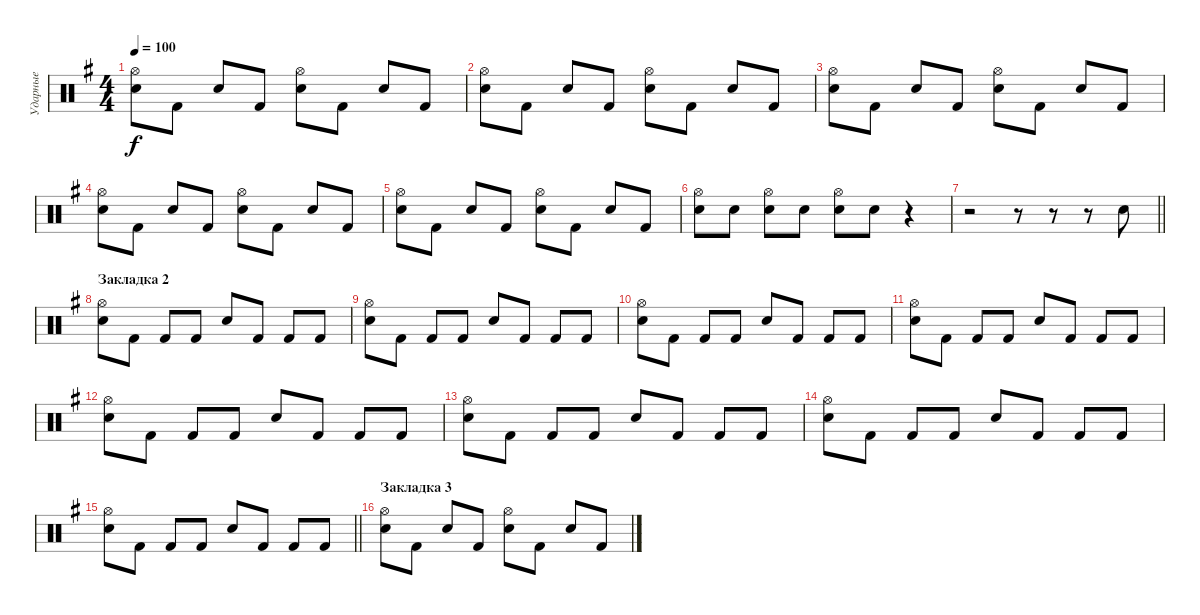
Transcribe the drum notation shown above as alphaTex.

\track ("Ударные" "Ударные") {instrument percussion}
\staff {score}
\articulation defaults
\ts (4 4)
\tempo 100
\clef neutral
\ks g
("Hi-Hat (open)" "Snare (hit) 2").8{dy f} "Kick (hit) 2".8 "Electric Snare (hit)".8 "Kick (hit) 2".8 ("Hi-Hat (open)" "Snare (hit) 2").8 "Kick (hit) 2".8 "Electric Snare (hit)".8 "Kick (hit) 2".8 |
("Hi-Hat (open)" "Snare (hit) 2").8 "Kick (hit) 2".8 "Electric Snare (hit)".8 "Kick (hit) 2".8 ("Hi-Hat (open)" "Snare (hit) 2").8 "Kick (hit) 2".8 "Electric Snare (hit)".8 "Kick (hit) 2".8 |
("Hi-Hat (open)" "Snare (hit) 2").8 "Kick (hit) 2".8 "Electric Snare (hit)".8 "Kick (hit) 2".8 ("Hi-Hat (open)" "Snare (hit) 2").8 "Kick (hit) 2".8 "Electric Snare (hit)".8 "Kick (hit) 2".8 |
("Hi-Hat (open)" "Snare (hit) 2").8 "Kick (hit) 2".8 "Electric Snare (hit)".8 "Kick (hit) 2".8 ("Hi-Hat (open)" "Snare (hit) 2").8 "Kick (hit) 2".8 "Electric Snare (hit)".8 "Kick (hit) 2".8 |
("Hi-Hat (open)" "Snare (hit) 2").8 "Kick (hit) 2".8 "Electric Snare (hit)".8 "Kick (hit) 2".8 ("Hi-Hat (open)" "Snare (hit) 2").8 "Kick (hit) 2".8 "Electric Snare (hit)".8 "Kick (hit) 2".8 |
("Hi-Hat (open)" "Electric Snare (hit)").8 "Snare (hit) 2".8 ("Hi-Hat (open)" "Electric Snare (hit)").8 "Snare (hit) 2".8 ("Hi-Hat (open)" "Electric Snare (hit)").8 "Snare (hit) 2".8 r.4 |
\barLineRight lightlight
r.2 r.8 r.8 r.8 "Snare (hit) 2".8 |
\section ("" "Закладка 2")
("Hi-Hat (open)" "Snare (hit) 2").8 "Kick (hit) 2".8 "Kick (hit) 2".8 "Kick (hit) 2".8 "Snare (hit) 2".8 "Kick (hit) 2".8 "Kick (hit) 2".8 "Kick (hit) 2".8 |
("Hi-Hat (open)" "Snare (hit) 2").8 "Kick (hit) 2".8 "Kick (hit) 2".8 "Kick (hit) 2".8 "Snare (hit) 2".8 "Kick (hit) 2".8 "Kick (hit) 2".8 "Kick (hit) 2".8 |
("Hi-Hat (open)" "Snare (hit) 2").8 "Kick (hit) 2".8 "Kick (hit) 2".8 "Kick (hit) 2".8 "Snare (hit) 2".8 "Kick (hit) 2".8 "Kick (hit) 2".8 "Kick (hit) 2".8 |
("Hi-Hat (open)" "Snare (hit) 2").8 "Kick (hit) 2".8 "Kick (hit) 2".8 "Kick (hit) 2".8 "Snare (hit) 2".8 "Kick (hit) 2".8 "Kick (hit) 2".8 "Kick (hit) 2".8 |
("Hi-Hat (open)" "Snare (hit) 2").8 "Kick (hit) 2".8 "Kick (hit) 2".8 "Kick (hit) 2".8 "Snare (hit) 2".8 "Kick (hit) 2".8 "Kick (hit) 2".8 "Kick (hit) 2".8 |
("Hi-Hat (open)" "Snare (hit) 2").8 "Kick (hit) 2".8 "Kick (hit) 2".8 "Kick (hit) 2".8 "Snare (hit) 2".8 "Kick (hit) 2".8 "Kick (hit) 2".8 "Kick (hit) 2".8 |
("Hi-Hat (open)" "Snare (hit) 2").8 "Kick (hit) 2".8 "Kick (hit) 2".8 "Kick (hit) 2".8 "Snare (hit) 2".8 "Kick (hit) 2".8 "Kick (hit) 2".8 "Kick (hit) 2".8 |
\barLineRight lightlight
("Hi-Hat (open)" "Snare (hit) 2").8 "Kick (hit) 2".8 "Kick (hit) 2".8 "Kick (hit) 2".8 "Snare (hit) 2".8 "Kick (hit) 2".8 "Kick (hit) 2".8 "Kick (hit) 2".8 |
\section ("" "Закладка 3")
("Hi-Hat (open)" "Snare (hit) 2").8 "Kick (hit) 2".8 "Electric Snare (hit)".8 "Kick (hit) 2".8 ("Hi-Hat (open)" "Snare (hit) 2").8 "Kick (hit) 2".8 "Electric Snare (hit)".8 "Kick (hit) 2".8
